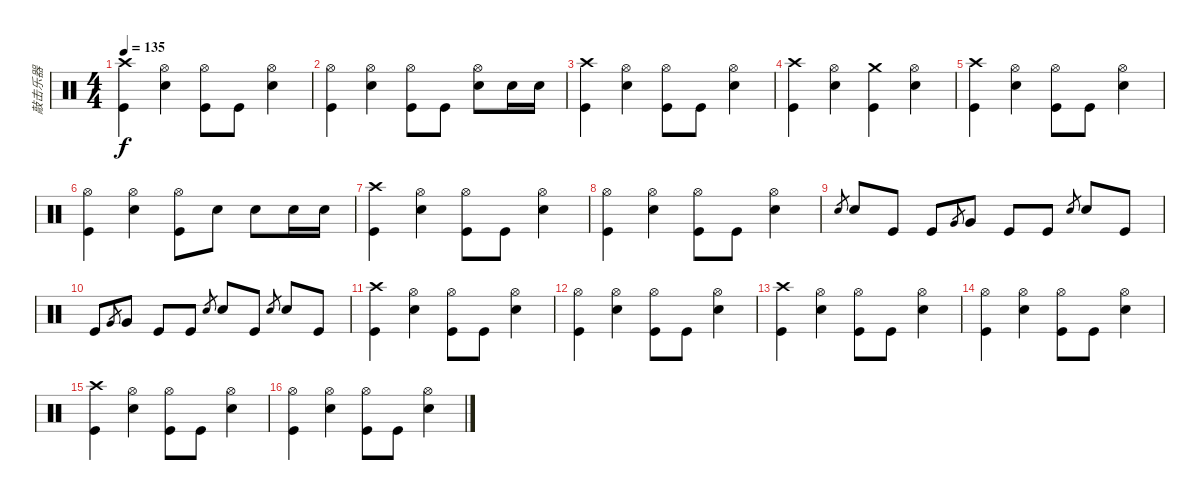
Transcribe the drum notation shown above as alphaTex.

\track ("敲击乐器" "敲击乐器") {instrument percussion}
\staff {score}
\articulation defaults
\ts (4 4)
\tempo 135
\clef neutral
\ks c
("Crash high (hit)" "Kick (hit)").4{dy f} ("Hi-Hat (open)" "Electric Snare (hit)").4 ("Hi-Hat (open)" "Kick (hit)").8 "Kick (hit)".8 ("Hi-Hat (open)" "Electric Snare (hit)").4 |
("Hi-Hat (open)" "Kick (hit)").4 ("Hi-Hat (open)" "Electric Snare (hit)").4 ("Hi-Hat (open)" "Kick (hit)").8 "Kick (hit)".8 ("Hi-Hat (open)" "Electric Snare (hit)").8 "Electric Snare (hit)".16 "Electric Snare (hit)".16 |
("Crash high (hit)" "Kick (hit)").4 ("Hi-Hat (open)" "Electric Snare (hit)").4 ("Hi-Hat (open)" "Kick (hit)").8 "Kick (hit)".8 ("Hi-Hat (open)" "Electric Snare (hit)").4 |
("Crash high (hit)" "Kick (hit)").4 ("Hi-Hat (open)" "Electric Snare (hit)").4 ("Crash medium (hit)" "Kick (hit)").4 ("Hi-Hat (open)" "Electric Snare (hit)").4 |
("Crash high (hit)" "Kick (hit)").4 ("Hi-Hat (open)" "Electric Snare (hit)").4 ("Hi-Hat (open)" "Kick (hit)").8 "Kick (hit)".8 ("Hi-Hat (open)" "Electric Snare (hit)").4 |
("Hi-Hat (open)" "Kick (hit)").4 ("Hi-Hat (open)" "Electric Snare (hit)").4 ("Hi-Hat (open)" "Kick (hit)").8 "Electric Snare (hit)".8 "Electric Snare (hit)".8 "Electric Snare (hit)".16 "Electric Snare (hit)".16 |
("Crash high (hit)" "Kick (hit)").4 ("Hi-Hat (open)" "Electric Snare (hit)").4 ("Hi-Hat (open)" "Kick (hit)").8 "Kick (hit)".8 ("Hi-Hat (open)" "Electric Snare (hit)").4 |
("Hi-Hat (open)" "Kick (hit)").4 ("Hi-Hat (open)" "Electric Snare (hit)").4 ("Hi-Hat (open)" "Kick (hit)").8 "Kick (hit)".8 ("Hi-Hat (open)" "Electric Snare (hit)").4 |
"Electric Snare (hit)".8{gr} "Electric Snare (hit)".8 "Kick (hit)".8 "Kick (hit)".8 "Very Low Tom (hit)".8{gr} "Very Low Tom (hit)".8 "Kick (hit)".8 "Kick (hit)".8 "Electric Snare (hit)".8{gr} "Electric Snare (hit)".8 "Kick (hit)".8 |
"Kick (hit)".8 "Very Low Tom (hit)".8{gr} "Very Low Tom (hit)".8 "Kick (hit)".8 "Kick (hit)".8 "Electric Snare (hit)".8{gr} "Electric Snare (hit)".8 "Kick (hit)".8 "Electric Snare (hit)".8{gr} "Electric Snare (hit)".8 "Kick (hit)".8 |
("Crash high (hit)" "Kick (hit)").4 ("Hi-Hat (open)" "Electric Snare (hit)").4 ("Hi-Hat (open)" "Kick (hit)").8 "Kick (hit)".8 ("Hi-Hat (open)" "Electric Snare (hit)").4 |
("Hi-Hat (open)" "Kick (hit)").4 ("Hi-Hat (open)" "Electric Snare (hit)").4 ("Hi-Hat (open)" "Kick (hit)").8 "Kick (hit)".8 ("Hi-Hat (open)" "Electric Snare (hit)").4 |
("Crash high (hit)" "Kick (hit)").4 ("Hi-Hat (open)" "Electric Snare (hit)").4 ("Hi-Hat (open)" "Kick (hit)").8 "Kick (hit)".8 ("Hi-Hat (open)" "Electric Snare (hit)").4 |
("Hi-Hat (open)" "Kick (hit)").4 ("Hi-Hat (open)" "Electric Snare (hit)").4 ("Hi-Hat (open)" "Kick (hit)").8 "Kick (hit)".8 ("Hi-Hat (open)" "Electric Snare (hit)").4 |
("Crash high (hit)" "Kick (hit)").4 ("Hi-Hat (open)" "Electric Snare (hit)").4 ("Hi-Hat (open)" "Kick (hit)").8 "Kick (hit)".8 ("Hi-Hat (open)" "Electric Snare (hit)").4 |
("Hi-Hat (open)" "Kick (hit)").4 ("Hi-Hat (open)" "Electric Snare (hit)").4 ("Hi-Hat (open)" "Kick (hit)").8 "Kick (hit)".8 ("Hi-Hat (open)" "Electric Snare (hit)").4
